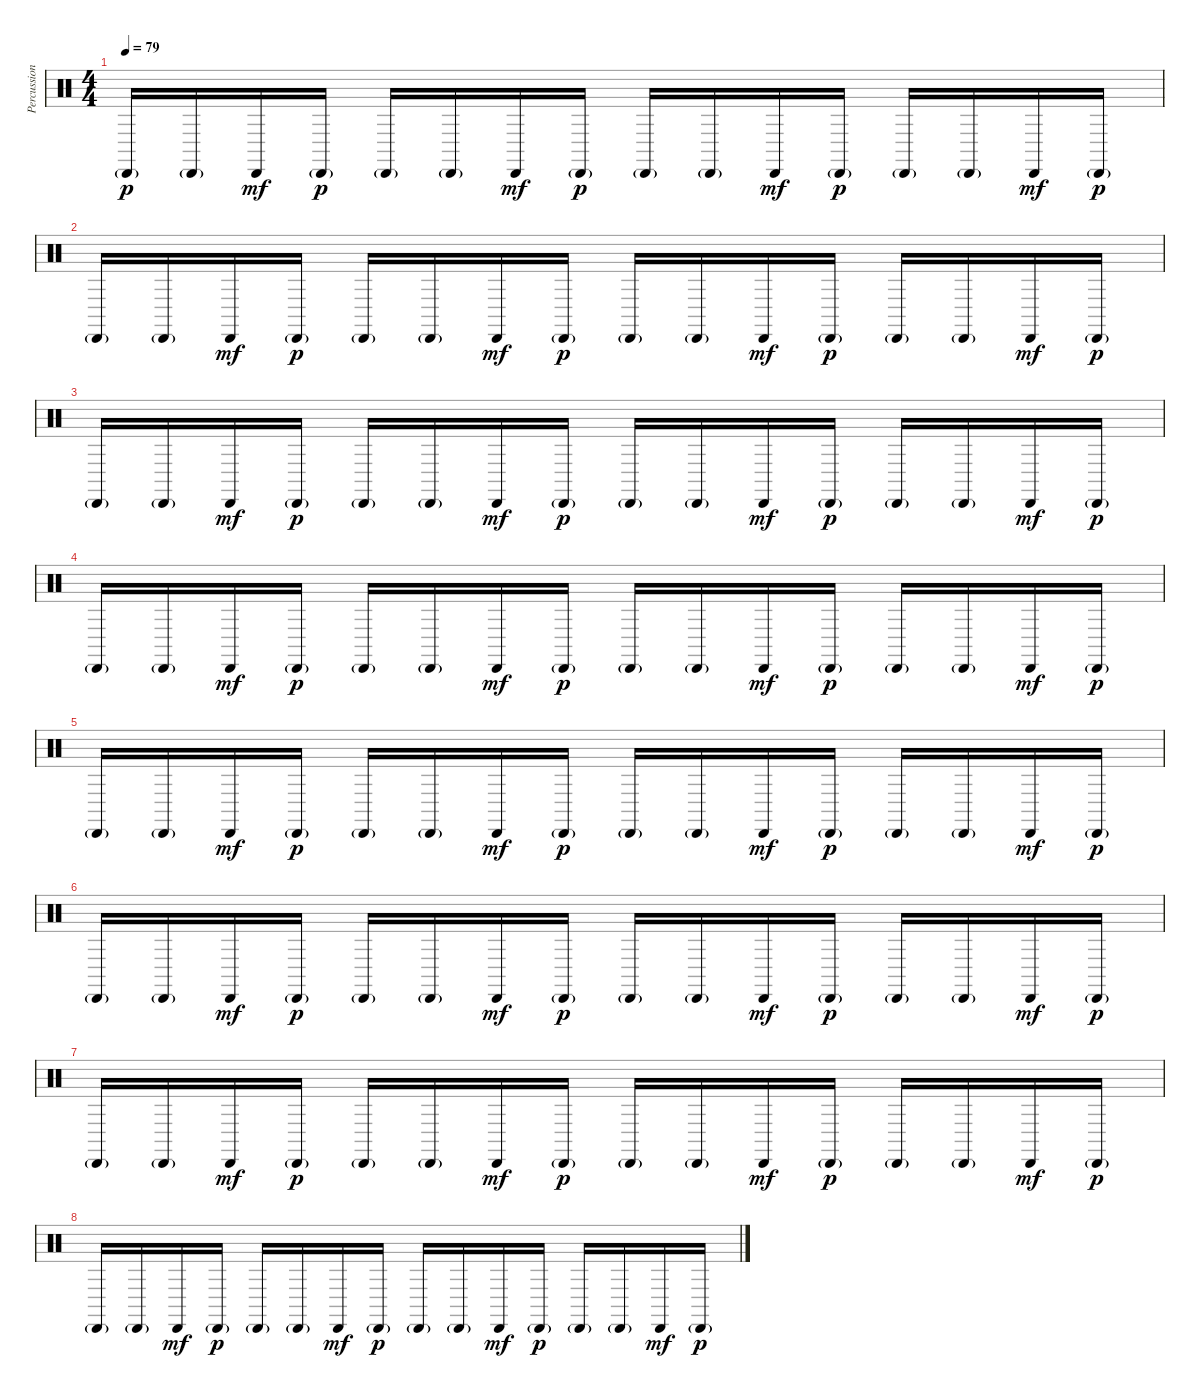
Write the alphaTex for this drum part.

\track ("Percussion Overdubs" "Percussion") {instrument percussion}
\staff {score}
\articulation defaults
\ts (4 4)
\tempo 79
\clef neutral
\ks c "Cabasa (hit)"{g}.16{dy p} "Cabasa (hit)"{g}.16 "Cabasa (hit)".16{dy mf} "Cabasa (hit)"{g}.16{dy p} "Cabasa (hit)"{g}.16 "Cabasa (hit)"{g}.16 "Cabasa (hit)".16{dy mf} "Cabasa (hit)"{g}.16{dy p} "Cabasa (hit)"{g}.16 "Cabasa (hit)"{g}.16 "Cabasa (hit)".16{dy mf} "Cabasa (hit)"{g}.16{dy p} "Cabasa (hit)"{g}.16 "Cabasa (hit)"{g}.16 "Cabasa (hit)".16{dy mf} "Cabasa (hit)"{g}.16{dy p}
|
"Cabasa (hit)"{g}.16 "Cabasa (hit)"{g}.16 "Cabasa (hit)".16{dy mf} "Cabasa (hit)"{g}.16{dy p} "Cabasa (hit)"{g}.16 "Cabasa (hit)"{g}.16 "Cabasa (hit)".16{dy mf} "Cabasa (hit)"{g}.16{dy p} "Cabasa (hit)"{g}.16 "Cabasa (hit)"{g}.16 "Cabasa (hit)".16{dy mf} "Cabasa (hit)"{g}.16{dy p} "Cabasa (hit)"{g}.16 "Cabasa (hit)"{g}.16 "Cabasa (hit)".16{dy mf} "Cabasa (hit)"{g}.16{dy p} |
"Cabasa (hit)"{g}.16 "Cabasa (hit)"{g}.16 "Cabasa (hit)".16{dy mf} "Cabasa (hit)"{g}.16{dy p} "Cabasa (hit)"{g}.16 "Cabasa (hit)"{g}.16 "Cabasa (hit)".16{dy mf} "Cabasa (hit)"{g}.16{dy p} "Cabasa (hit)"{g}.16 "Cabasa (hit)"{g}.16 "Cabasa (hit)".16{dy mf} "Cabasa (hit)"{g}.16{dy p} "Cabasa (hit)"{g}.16 "Cabasa (hit)"{g}.16 "Cabasa (hit)".16{dy mf} "Cabasa (hit)"{g}.16{dy p} |
"Cabasa (hit)"{g}.16 "Cabasa (hit)"{g}.16 "Cabasa (hit)".16{dy mf} "Cabasa (hit)"{g}.16{dy p} "Cabasa (hit)"{g}.16 "Cabasa (hit)"{g}.16 "Cabasa (hit)".16{dy mf} "Cabasa (hit)"{g}.16{dy p} "Cabasa (hit)"{g}.16 "Cabasa (hit)"{g}.16 "Cabasa (hit)".16{dy mf} "Cabasa (hit)"{g}.16{dy p} "Cabasa (hit)"{g}.16 "Cabasa (hit)"{g}.16 "Cabasa (hit)".16{dy mf} "Cabasa (hit)"{g}.16{dy p} |
"Cabasa (hit)"{g}.16 "Cabasa (hit)"{g}.16 "Cabasa (hit)".16{dy mf} "Cabasa (hit)"{g}.16{dy p} "Cabasa (hit)"{g}.16 "Cabasa (hit)"{g}.16 "Cabasa (hit)".16{dy mf} "Cabasa (hit)"{g}.16{dy p} "Cabasa (hit)"{g}.16 "Cabasa (hit)"{g}.16 "Cabasa (hit)".16{dy mf} "Cabasa (hit)"{g}.16{dy p} "Cabasa (hit)"{g}.16 "Cabasa (hit)"{g}.16 "Cabasa (hit)".16{dy mf} "Cabasa (hit)"{g}.16{dy p} |
"Cabasa (hit)"{g}.16 "Cabasa (hit)"{g}.16 "Cabasa (hit)".16{dy mf} "Cabasa (hit)"{g}.16{dy p} "Cabasa (hit)"{g}.16 "Cabasa (hit)"{g}.16 "Cabasa (hit)".16{dy mf} "Cabasa (hit)"{g}.16{dy p} "Cabasa (hit)"{g}.16 "Cabasa (hit)"{g}.16 "Cabasa (hit)".16{dy mf} "Cabasa (hit)"{g}.16{dy p} "Cabasa (hit)"{g}.16 "Cabasa (hit)"{g}.16 "Cabasa (hit)".16{dy mf} "Cabasa (hit)"{g}.16{dy p} |
"Cabasa (hit)"{g}.16 "Cabasa (hit)"{g}.16 "Cabasa (hit)".16{dy mf} "Cabasa (hit)"{g}.16{dy p} "Cabasa (hit)"{g}.16 "Cabasa (hit)"{g}.16 "Cabasa (hit)".16{dy mf} "Cabasa (hit)"{g}.16{dy p} "Cabasa (hit)"{g}.16 "Cabasa (hit)"{g}.16 "Cabasa (hit)".16{dy mf} "Cabasa (hit)"{g}.16{dy p} "Cabasa (hit)"{g}.16 "Cabasa (hit)"{g}.16 "Cabasa (hit)".16{dy mf} "Cabasa (hit)"{g}.16{dy p} |
"Cabasa (hit)"{g}.16 "Cabasa (hit)"{g}.16 "Cabasa (hit)".16{dy mf} "Cabasa (hit)"{g}.16{dy p} "Cabasa (hit)"{g}.16 "Cabasa (hit)"{g}.16 "Cabasa (hit)".16{dy mf} "Cabasa (hit)"{g}.16{dy p} "Cabasa (hit)"{g}.16 "Cabasa (hit)"{g}.16 "Cabasa (hit)".16{dy mf} "Cabasa (hit)"{g}.16{dy p} "Cabasa (hit)"{g}.16 "Cabasa (hit)"{g}.16 "Cabasa (hit)".16{dy mf} "Cabasa (hit)"{g}.16{dy p}
